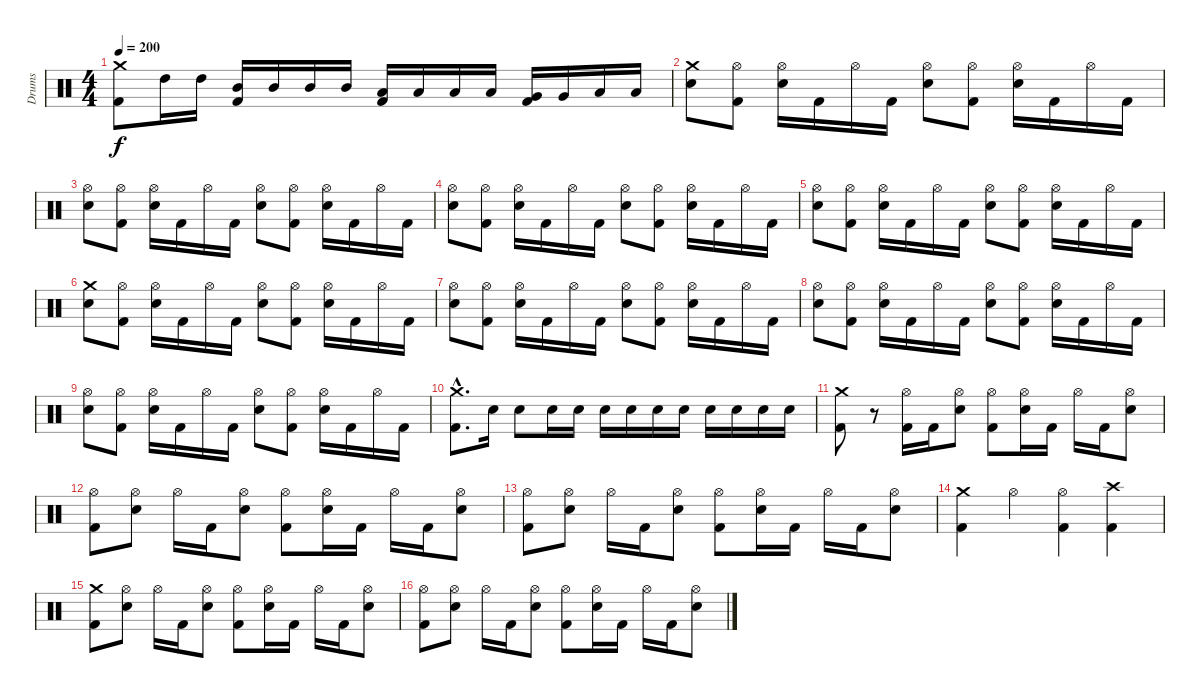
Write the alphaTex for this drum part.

\track ("Drums" "Drums") {instrument percussion}
\staff {score}
\articulation defaults
\ts (4 4)
\tempo 200
\clef neutral
\ks c
("Crash medium (hit)" "Kick (hit) 2").8{dy f} "High Tom (hit)".16 "High Tom (hit)".16 ("Mid Tom (hit)" "Kick (hit) 2").16 "Mid Tom (hit)".16 "Mid Tom (hit)".16 "Mid Tom (hit)".16 ("Low Tom (hit)" "Kick (hit) 2").16 "Low Tom (hit)".16 "Low Tom (hit)".16 "Low Tom (hit)".16 ("Very Low Tom (hit)" "Kick (hit) 2").16 "Very Low Tom (hit)".16 "Low Floor Tom (hit)".16 "Low Floor Tom (hit)".16 |
("Crash medium (hit)" "Snare (hit) 2").8 ("Hi-Hat (open)" "Kick (hit) 2").8 ("Hi-Hat (open)" "Snare (hit) 2").16 "Kick (hit) 2".16 "Hi-Hat (open)".16 "Kick (hit) 2".16 ("Hi-Hat (open)" "Snare (hit) 2").8 ("Hi-Hat (open)" "Kick (hit) 2").8 ("Hi-Hat (open)" "Snare (hit) 2").16 "Kick (hit) 2".16 "Hi-Hat (open)".16 "Kick (hit) 2".16 |
("Hi-Hat (open)" "Snare (hit) 2").8 ("Hi-Hat (open)" "Kick (hit) 2").8 ("Hi-Hat (open)" "Snare (hit) 2").16 "Kick (hit) 2".16 "Hi-Hat (open)".16 "Kick (hit) 2".16 ("Hi-Hat (open)" "Snare (hit) 2").8 ("Hi-Hat (open)" "Kick (hit) 2").8 ("Hi-Hat (open)" "Snare (hit) 2").16 "Kick (hit) 2".16 "Hi-Hat (open)".16 "Kick (hit) 2".16 |
("Hi-Hat (open)" "Snare (hit) 2").8 ("Hi-Hat (open)" "Kick (hit) 2").8 ("Hi-Hat (open)" "Snare (hit) 2").16 "Kick (hit) 2".16 "Hi-Hat (open)".16 "Kick (hit) 2".16 ("Hi-Hat (open)" "Snare (hit) 2").8 ("Hi-Hat (open)" "Kick (hit) 2").8 ("Hi-Hat (open)" "Snare (hit) 2").16 "Kick (hit) 2".16 "Hi-Hat (open)".16 "Kick (hit) 2".16 |
("Hi-Hat (open)" "Snare (hit) 2").8 ("Hi-Hat (open)" "Kick (hit) 2").8 ("Hi-Hat (open)" "Snare (hit) 2").16 "Kick (hit) 2".16 "Hi-Hat (open)".16 "Kick (hit) 2".16 ("Hi-Hat (open)" "Snare (hit) 2").8 ("Hi-Hat (open)" "Kick (hit) 2").8 ("Hi-Hat (open)" "Snare (hit) 2").16 "Kick (hit) 2".16 "Hi-Hat (open)".16 "Kick (hit) 2".16 |
("Crash medium (hit)" "Snare (hit) 2").8 ("Hi-Hat (open)" "Kick (hit) 2").8 ("Hi-Hat (open)" "Snare (hit) 2").16 "Kick (hit) 2".16 "Hi-Hat (open)".16 "Kick (hit) 2".16 ("Hi-Hat (open)" "Snare (hit) 2").8 ("Hi-Hat (open)" "Kick (hit) 2").8 ("Hi-Hat (open)" "Snare (hit) 2").16 "Kick (hit) 2".16 "Hi-Hat (open)".16 "Kick (hit) 2".16 |
("Hi-Hat (open)" "Snare (hit) 2").8 ("Hi-Hat (open)" "Kick (hit) 2").8 ("Hi-Hat (open)" "Snare (hit) 2").16 "Kick (hit) 2".16 "Hi-Hat (open)".16 "Kick (hit) 2".16 ("Hi-Hat (open)" "Snare (hit) 2").8 ("Hi-Hat (open)" "Kick (hit) 2").8 ("Hi-Hat (open)" "Snare (hit) 2").16 "Kick (hit) 2".16 "Hi-Hat (open)".16 "Kick (hit) 2".16 |
("Hi-Hat (open)" "Snare (hit) 2").8 ("Hi-Hat (open)" "Kick (hit) 2").8 ("Hi-Hat (open)" "Snare (hit) 2").16 "Kick (hit) 2".16 "Hi-Hat (open)".16 "Kick (hit) 2".16 ("Hi-Hat (open)" "Snare (hit) 2").8 ("Hi-Hat (open)" "Kick (hit) 2").8 ("Hi-Hat (open)" "Snare (hit) 2").16 "Kick (hit) 2".16 "Hi-Hat (open)".16 "Kick (hit) 2".16 |
("Hi-Hat (open)" "Snare (hit) 2").8 ("Hi-Hat (open)" "Kick (hit) 2").8 ("Hi-Hat (open)" "Snare (hit) 2").16 "Kick (hit) 2".16 "Hi-Hat (open)".16 "Kick (hit) 2".16 ("Hi-Hat (open)" "Snare (hit) 2").8 ("Hi-Hat (open)" "Kick (hit) 2").8 ("Hi-Hat (open)" "Snare (hit) 2").16 "Kick (hit) 2".16 "Hi-Hat (open)".16 "Kick (hit) 2".16 |
("Crash medium (hit)"{hac} "Kick (hit) 2"{hac}).8{d} "Snare (hit) 2".16 "Snare (hit) 2".8 "Snare (hit) 2".16 "Snare (hit) 2".16 "Snare (hit) 2".16 "Snare (hit) 2".16 "Snare (hit) 2".16 "Snare (hit) 2".16 "Snare (hit) 2".16 "Snare (hit) 2".16 "Snare (hit) 2".16 "Snare (hit) 2".16 |
("Crash medium (hit)" "Kick (hit) 2").8 r.8 ("Hi-Hat (open)" "Kick (hit) 2").16 "Kick (hit) 2".16 ("Hi-Hat (open)" "Snare (hit) 2").8 ("Hi-Hat (open)" "Kick (hit) 2").8 ("Hi-Hat (open)" "Snare (hit) 2").16 "Kick (hit) 2".16 "Hi-Hat (open)".16 "Kick (hit) 2".16 ("Hi-Hat (open)" "Snare (hit) 2").8 |
("Hi-Hat (open)" "Kick (hit) 2").8 ("Hi-Hat (open)" "Snare (hit) 2").8 "Hi-Hat (open)".16 "Kick (hit) 2".16 ("Hi-Hat (open)" "Snare (hit) 2").8 ("Hi-Hat (open)" "Kick (hit) 2").8 ("Hi-Hat (open)" "Snare (hit) 2").16 "Kick (hit) 2".16 "Hi-Hat (open)".16 "Kick (hit) 2".16 ("Hi-Hat (open)" "Snare (hit) 2").8 |
("Hi-Hat (open)" "Kick (hit) 2").8 ("Hi-Hat (open)" "Snare (hit) 2").8 "Hi-Hat (open)".16 "Kick (hit) 2".16 ("Hi-Hat (open)" "Snare (hit) 2").8 ("Hi-Hat (open)" "Kick (hit) 2").8 ("Hi-Hat (open)" "Snare (hit) 2").16 "Kick (hit) 2".16 "Hi-Hat (open)".16 "Kick (hit) 2".16 ("Hi-Hat (open)" "Snare (hit) 2").8 |
("Crash medium (hit)" "Kick (hit) 2").4 "Hi-Hat (open)".4 ("Hi-Hat (open)" "Kick (hit) 2").4 ("Crash high (hit)" "Kick (hit) 2").4 |
("Crash medium (hit)" "Kick (hit) 2").8 ("Hi-Hat (open)" "Snare (hit) 2").8 "Hi-Hat (open)".16 "Kick (hit) 2".16 ("Hi-Hat (open)" "Snare (hit) 2").8 ("Hi-Hat (open)" "Kick (hit) 2").8 ("Hi-Hat (open)" "Snare (hit) 2").16 "Kick (hit) 2".16 "Hi-Hat (open)".16 "Kick (hit) 2".16 ("Hi-Hat (open)" "Snare (hit) 2").8 |
("Hi-Hat (open)" "Kick (hit) 2").8 ("Hi-Hat (open)" "Snare (hit) 2").8 "Hi-Hat (open)".16 "Kick (hit) 2".16 ("Hi-Hat (open)" "Snare (hit) 2").8 ("Hi-Hat (open)" "Kick (hit) 2").8 ("Hi-Hat (open)" "Snare (hit) 2").16 "Kick (hit) 2".16 "Hi-Hat (open)".16 "Kick (hit) 2".16 ("Hi-Hat (open)" "Snare (hit) 2").8
